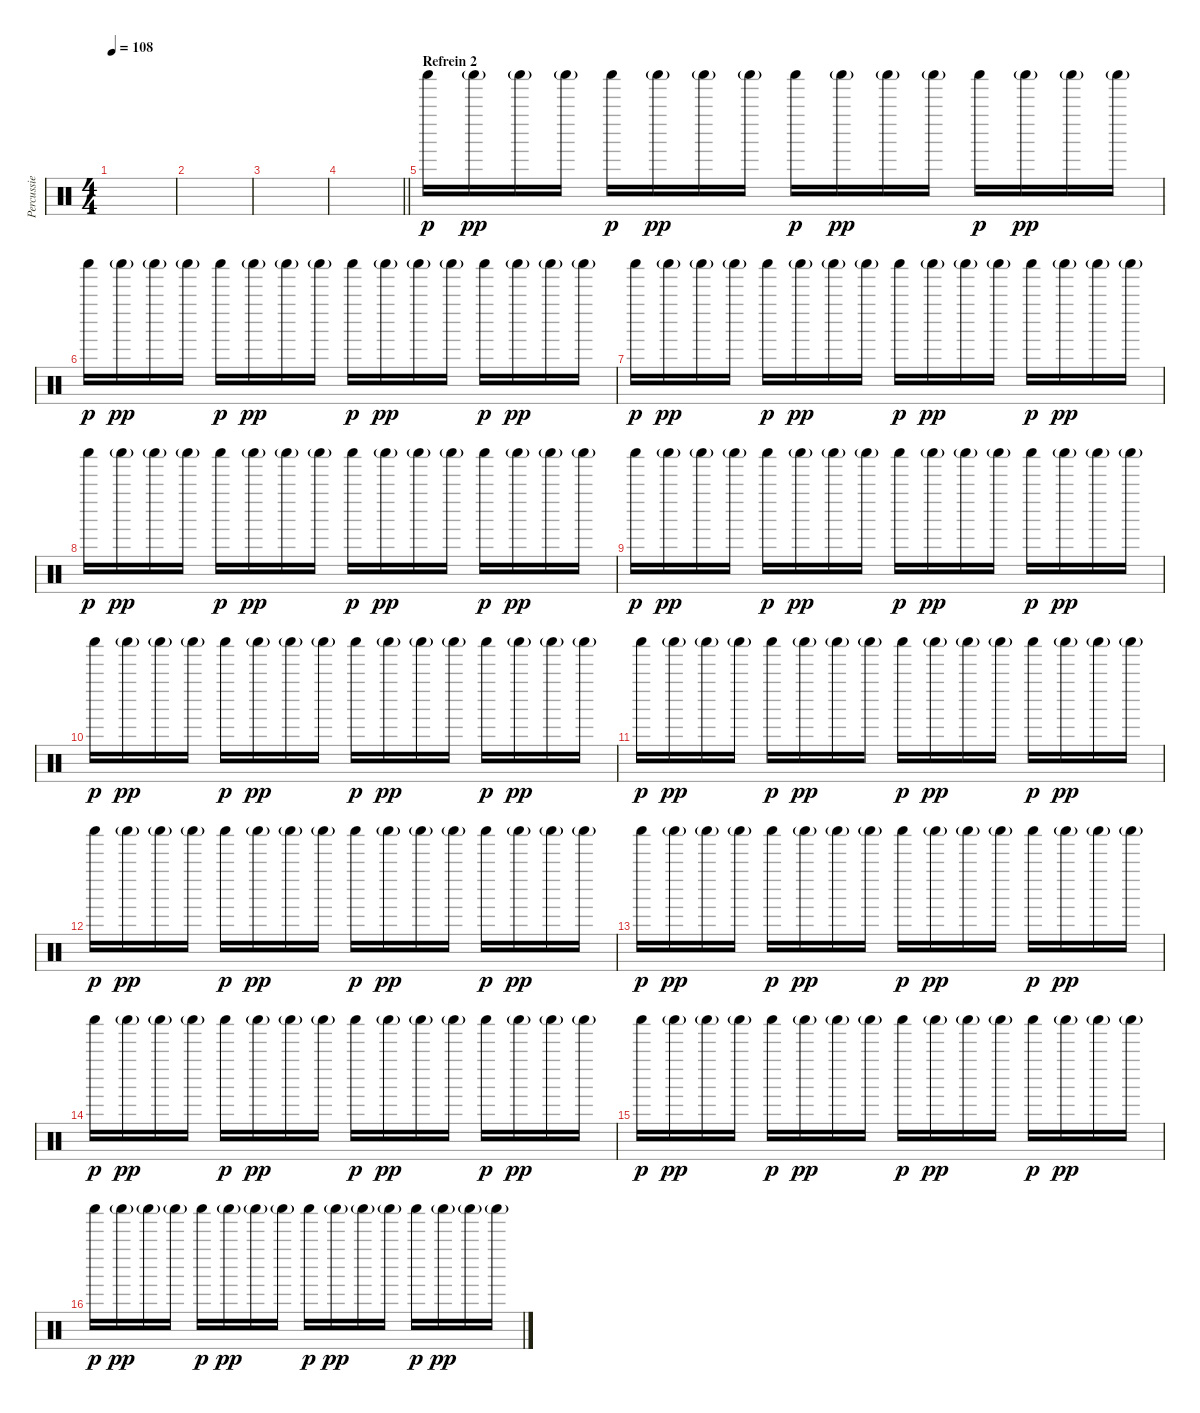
\track ("Percussie" "Percussie") {instrument percussion}
\staff {score}
\articulation defaults
\ts (4 4)
\tempo 108
\clef neutral
\ks c
|
|
|
\barLineRight lightlight
|
\section ("" "Refrein 2")
"Shaker (hit)".16{dy p} "Shaker (hit)"{g}.16{dy pp} "Shaker (hit)"{g}.16 "Shaker (hit)"{g}.16 "Shaker (hit)".16{dy p} "Shaker (hit)"{g}.16{dy pp} "Shaker (hit)"{g}.16 "Shaker (hit)"{g}.16 "Shaker (hit)".16{dy p} "Shaker (hit)"{g}.16{dy pp} "Shaker (hit)"{g}.16 "Shaker (hit)"{g}.16 "Shaker (hit)".16{dy p} "Shaker (hit)"{g}.16{dy pp} "Shaker (hit)"{g}.16 "Shaker (hit)"{g}.16 |
"Shaker (hit)".16{dy p} "Shaker (hit)"{g}.16{dy pp} "Shaker (hit)"{g}.16 "Shaker (hit)"{g}.16 "Shaker (hit)".16{dy p} "Shaker (hit)"{g}.16{dy pp} "Shaker (hit)"{g}.16 "Shaker (hit)"{g}.16 "Shaker (hit)".16{dy p} "Shaker (hit)"{g}.16{dy pp} "Shaker (hit)"{g}.16 "Shaker (hit)"{g}.16 "Shaker (hit)".16{dy p} "Shaker (hit)"{g}.16{dy pp} "Shaker (hit)"{g}.16 "Shaker (hit)"{g}.16 |
"Shaker (hit)".16{dy p} "Shaker (hit)"{g}.16{dy pp} "Shaker (hit)"{g}.16 "Shaker (hit)"{g}.16 "Shaker (hit)".16{dy p} "Shaker (hit)"{g}.16{dy pp} "Shaker (hit)"{g}.16 "Shaker (hit)"{g}.16 "Shaker (hit)".16{dy p} "Shaker (hit)"{g}.16{dy pp} "Shaker (hit)"{g}.16 "Shaker (hit)"{g}.16 "Shaker (hit)".16{dy p} "Shaker (hit)"{g}.16{dy pp} "Shaker (hit)"{g}.16 "Shaker (hit)"{g}.16 |
"Shaker (hit)".16{dy p} "Shaker (hit)"{g}.16{dy pp} "Shaker (hit)"{g}.16 "Shaker (hit)"{g}.16 "Shaker (hit)".16{dy p} "Shaker (hit)"{g}.16{dy pp} "Shaker (hit)"{g}.16 "Shaker (hit)"{g}.16 "Shaker (hit)".16{dy p} "Shaker (hit)"{g}.16{dy pp} "Shaker (hit)"{g}.16 "Shaker (hit)"{g}.16 "Shaker (hit)".16{dy p} "Shaker (hit)"{g}.16{dy pp} "Shaker (hit)"{g}.16 "Shaker (hit)"{g}.16 |
"Shaker (hit)".16{dy p} "Shaker (hit)"{g}.16{dy pp} "Shaker (hit)"{g}.16 "Shaker (hit)"{g}.16 "Shaker (hit)".16{dy p} "Shaker (hit)"{g}.16{dy pp} "Shaker (hit)"{g}.16 "Shaker (hit)"{g}.16 "Shaker (hit)".16{dy p} "Shaker (hit)"{g}.16{dy pp} "Shaker (hit)"{g}.16 "Shaker (hit)"{g}.16 "Shaker (hit)".16{dy p} "Shaker (hit)"{g}.16{dy pp} "Shaker (hit)"{g}.16 "Shaker (hit)"{g}.16 |
"Shaker (hit)".16{dy p} "Shaker (hit)"{g}.16{dy pp} "Shaker (hit)"{g}.16 "Shaker (hit)"{g}.16 "Shaker (hit)".16{dy p} "Shaker (hit)"{g}.16{dy pp} "Shaker (hit)"{g}.16 "Shaker (hit)"{g}.16 "Shaker (hit)".16{dy p} "Shaker (hit)"{g}.16{dy pp} "Shaker (hit)"{g}.16 "Shaker (hit)"{g}.16 "Shaker (hit)".16{dy p} "Shaker (hit)"{g}.16{dy pp} "Shaker (hit)"{g}.16 "Shaker (hit)"{g}.16 |
"Shaker (hit)".16{dy p} "Shaker (hit)"{g}.16{dy pp} "Shaker (hit)"{g}.16 "Shaker (hit)"{g}.16 "Shaker (hit)".16{dy p} "Shaker (hit)"{g}.16{dy pp} "Shaker (hit)"{g}.16 "Shaker (hit)"{g}.16 "Shaker (hit)".16{dy p} "Shaker (hit)"{g}.16{dy pp} "Shaker (hit)"{g}.16 "Shaker (hit)"{g}.16 "Shaker (hit)".16{dy p} "Shaker (hit)"{g}.16{dy pp} "Shaker (hit)"{g}.16 "Shaker (hit)"{g}.16 |
"Shaker (hit)".16{dy p} "Shaker (hit)"{g}.16{dy pp} "Shaker (hit)"{g}.16 "Shaker (hit)"{g}.16 "Shaker (hit)".16{dy p} "Shaker (hit)"{g}.16{dy pp} "Shaker (hit)"{g}.16 "Shaker (hit)"{g}.16 "Shaker (hit)".16{dy p} "Shaker (hit)"{g}.16{dy pp} "Shaker (hit)"{g}.16 "Shaker (hit)"{g}.16 "Shaker (hit)".16{dy p} "Shaker (hit)"{g}.16{dy pp} "Shaker (hit)"{g}.16 "Shaker (hit)"{g}.16 |
"Shaker (hit)".16{dy p} "Shaker (hit)"{g}.16{dy pp} "Shaker (hit)"{g}.16 "Shaker (hit)"{g}.16 "Shaker (hit)".16{dy p} "Shaker (hit)"{g}.16{dy pp} "Shaker (hit)"{g}.16 "Shaker (hit)"{g}.16 "Shaker (hit)".16{dy p} "Shaker (hit)"{g}.16{dy pp} "Shaker (hit)"{g}.16 "Shaker (hit)"{g}.16 "Shaker (hit)".16{dy p} "Shaker (hit)"{g}.16{dy pp} "Shaker (hit)"{g}.16 "Shaker (hit)"{g}.16 |
"Shaker (hit)".16{dy p} "Shaker (hit)"{g}.16{dy pp} "Shaker (hit)"{g}.16 "Shaker (hit)"{g}.16 "Shaker (hit)".16{dy p} "Shaker (hit)"{g}.16{dy pp} "Shaker (hit)"{g}.16 "Shaker (hit)"{g}.16 "Shaker (hit)".16{dy p} "Shaker (hit)"{g}.16{dy pp} "Shaker (hit)"{g}.16 "Shaker (hit)"{g}.16 "Shaker (hit)".16{dy p} "Shaker (hit)"{g}.16{dy pp} "Shaker (hit)"{g}.16 "Shaker (hit)"{g}.16 |
"Shaker (hit)".16{dy p} "Shaker (hit)"{g}.16{dy pp} "Shaker (hit)"{g}.16 "Shaker (hit)"{g}.16 "Shaker (hit)".16{dy p} "Shaker (hit)"{g}.16{dy pp} "Shaker (hit)"{g}.16 "Shaker (hit)"{g}.16 "Shaker (hit)".16{dy p} "Shaker (hit)"{g}.16{dy pp} "Shaker (hit)"{g}.16 "Shaker (hit)"{g}.16 "Shaker (hit)".16{dy p} "Shaker (hit)"{g}.16{dy pp} "Shaker (hit)"{g}.16 "Shaker (hit)"{g}.16 |
"Shaker (hit)".16{dy p} "Shaker (hit)"{g}.16{dy pp} "Shaker (hit)"{g}.16 "Shaker (hit)"{g}.16 "Shaker (hit)".16{dy p} "Shaker (hit)"{g}.16{dy pp} "Shaker (hit)"{g}.16 "Shaker (hit)"{g}.16 "Shaker (hit)".16{dy p} "Shaker (hit)"{g}.16{dy pp} "Shaker (hit)"{g}.16 "Shaker (hit)"{g}.16 "Shaker (hit)".16{dy p} "Shaker (hit)"{g}.16{dy pp} "Shaker (hit)"{g}.16 "Shaker (hit)"{g}.16
